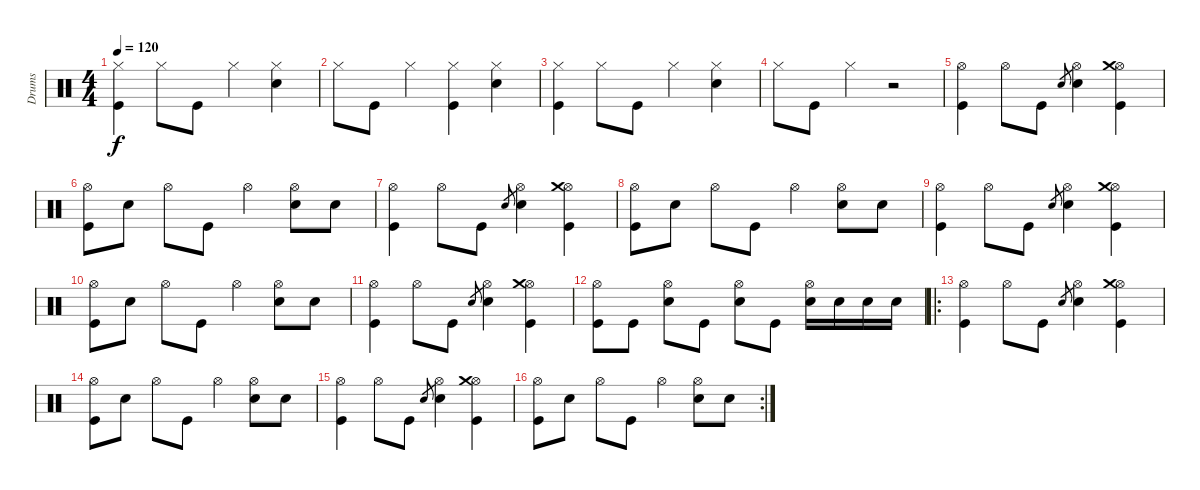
\track ("Drums" "Drums") {instrument percussion}
\staff {score}
\articulation defaults
\ts (4 4)
\tempo 120
\clef neutral
\ks c
("Hi-Hat (closed)" "Kick (hit)").4{dy f} "Hi-Hat (closed)".8 "Kick (hit)".8 "Hi-Hat (closed)".4 ("Hi-Hat (closed)" "Electric Snare (hit)").4 |
"Hi-Hat (closed)".8 "Kick (hit)".8 "Hi-Hat (closed)".4 ("Hi-Hat (closed)" "Kick (hit)").4 ("Hi-Hat (closed)" "Electric Snare (hit)").4 |
("Hi-Hat (closed)" "Kick (hit)").4 "Hi-Hat (closed)".8 "Kick (hit)".8 "Hi-Hat (closed)".4 ("Hi-Hat (closed)" "Electric Snare (hit)").4 |
"Hi-Hat (closed)".8 "Kick (hit)".8 "Hi-Hat (closed)".4 r.2 |
("Hi-Hat (open)" "Kick (hit)").4 "Hi-Hat (open)".8 "Kick (hit)".8 "Electric Snare (hit)".8{gr} ("Hi-Hat (open)" "Electric Snare (hit)").4 ("Hi-Hat (open)" "Crash medium (hit)" "Kick (hit)").4 |
("Hi-Hat (open)" "Kick (hit)").8 "Electric Snare (hit)".8 "Hi-Hat (open)".8 "Kick (hit)".8 "Hi-Hat (open)".4 ("Hi-Hat (open)" "Electric Snare (hit)").8 "Electric Snare (hit)".8 |
("Hi-Hat (open)" "Kick (hit)").4 "Hi-Hat (open)".8 "Kick (hit)".8 "Electric Snare (hit)".8{gr} ("Hi-Hat (open)" "Electric Snare (hit)").4 ("Hi-Hat (open)" "Crash medium (hit)" "Kick (hit)").4 |
("Hi-Hat (open)" "Kick (hit)").8 "Electric Snare (hit)".8 "Hi-Hat (open)".8 "Kick (hit)".8 "Hi-Hat (open)".4 ("Hi-Hat (open)" "Electric Snare (hit)").8 "Electric Snare (hit)".8 |
("Hi-Hat (open)" "Kick (hit)").4 "Hi-Hat (open)".8 "Kick (hit)".8 "Electric Snare (hit)".8{gr} ("Hi-Hat (open)" "Electric Snare (hit)").4 ("Hi-Hat (open)" "Crash medium (hit)" "Kick (hit)").4 |
("Hi-Hat (open)" "Kick (hit)").8 "Electric Snare (hit)".8 "Hi-Hat (open)".8 "Kick (hit)".8 "Hi-Hat (open)".4 ("Hi-Hat (open)" "Electric Snare (hit)").8 "Electric Snare (hit)".8 |
("Hi-Hat (open)" "Kick (hit)").4 "Hi-Hat (open)".8 "Kick (hit)".8 "Electric Snare (hit)".8{gr} ("Hi-Hat (open)" "Electric Snare (hit)").4 ("Hi-Hat (open)" "Crash medium (hit)" "Kick (hit)").4 |
("Hi-Hat (open)" "Kick (hit)").8 "Kick (hit)".8 ("Hi-Hat (open)" "Electric Snare (hit)").8 "Kick (hit)".8 ("Hi-Hat (open)" "Electric Snare (hit)").8 "Kick (hit)".8 ("Hi-Hat (open)" "Electric Snare (hit)").16 "Electric Snare (hit)".16 "Electric Snare (hit)".16 "Electric Snare (hit)".16 |
\ro
("Hi-Hat (open)" "Kick (hit)").4 "Hi-Hat (open)".8 "Kick (hit)".8 "Electric Snare (hit)".8{gr} ("Hi-Hat (open)" "Electric Snare (hit)").4 ("Hi-Hat (open)" "Crash medium (hit)" "Kick (hit)").4 |
("Hi-Hat (open)" "Kick (hit)").8 "Electric Snare (hit)".8 "Hi-Hat (open)".8 "Kick (hit)".8 "Hi-Hat (open)".4 ("Hi-Hat (open)" "Electric Snare (hit)").8 "Electric Snare (hit)".8 |
("Hi-Hat (open)" "Kick (hit)").4 "Hi-Hat (open)".8 "Kick (hit)".8 "Electric Snare (hit)".8{gr} ("Hi-Hat (open)" "Electric Snare (hit)").4 ("Hi-Hat (open)" "Crash medium (hit)" "Kick (hit)").4 |
\rc 2
("Hi-Hat (open)" "Kick (hit)").8 "Electric Snare (hit)".8 "Hi-Hat (open)".8 "Kick (hit)".8 "Hi-Hat (open)".4 ("Hi-Hat (open)" "Electric Snare (hit)").8 "Electric Snare (hit)".8
